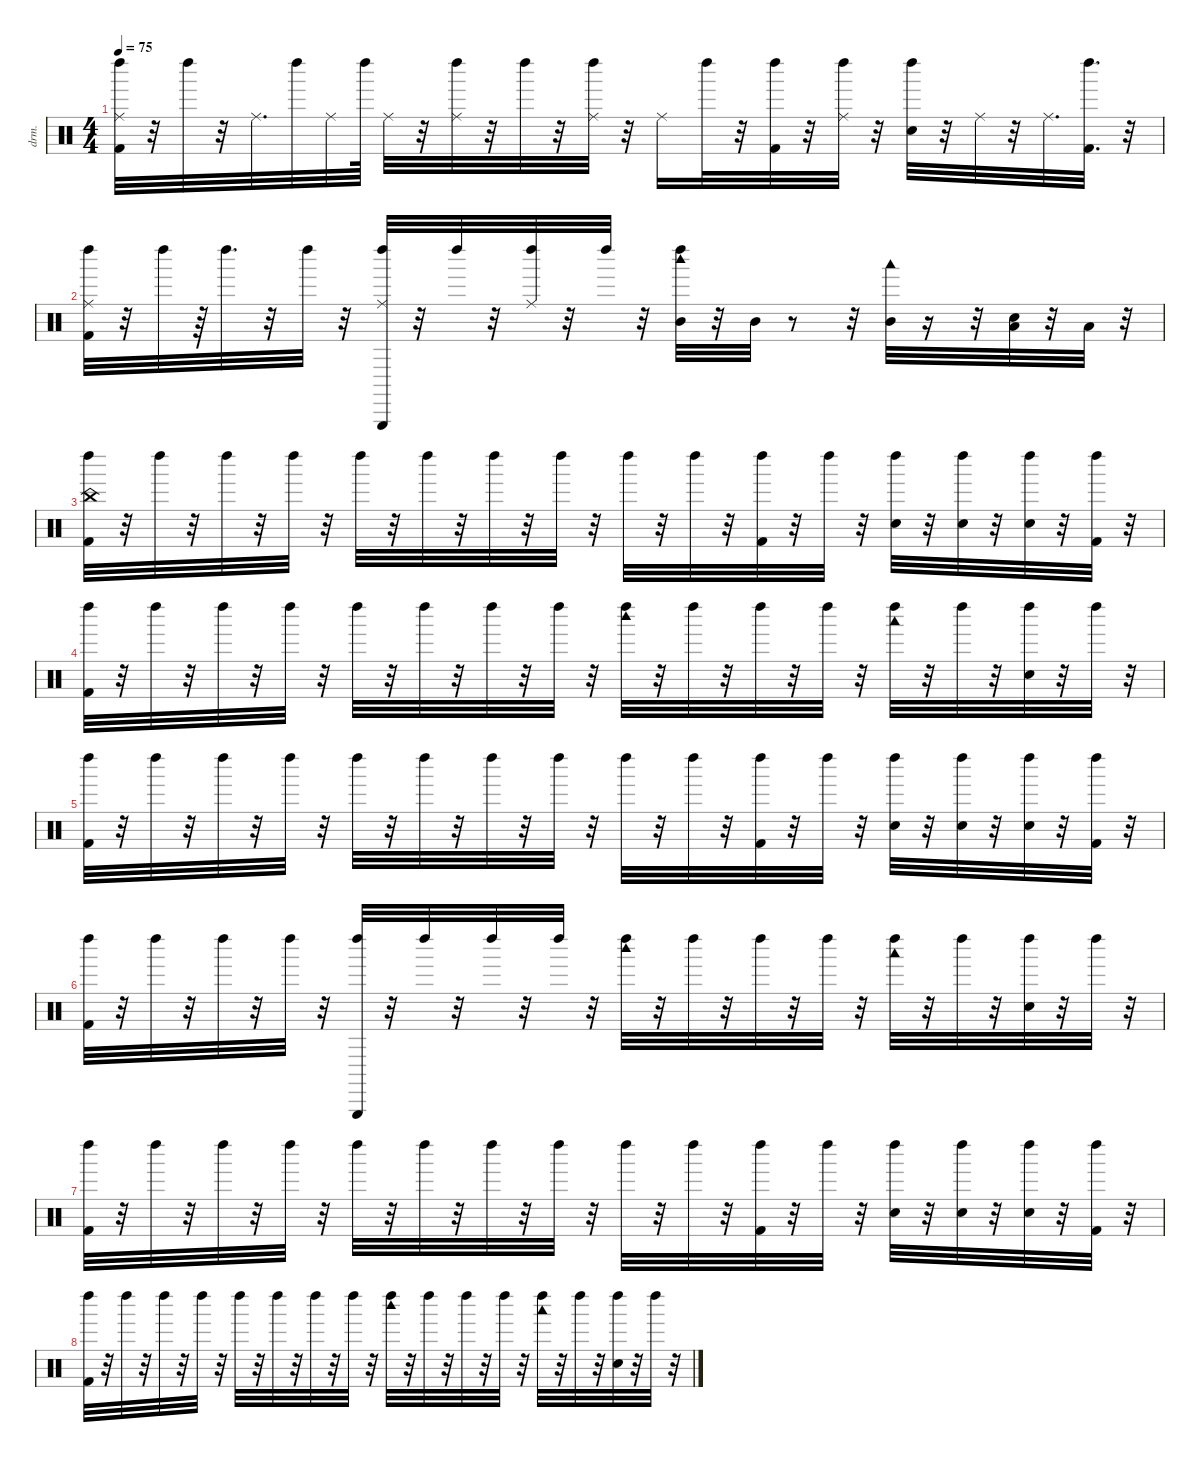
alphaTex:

\defaultSystemsLayout 4
\hideDynamics
\bracketExtendMode nobrackets
\otherSystemsTrackNameOrientation horizontal
\track ("Drums" "drm.") {instrument percussion}
\staff {score}
\articulation defaults
\ts (4 4)
\tempo 75
\clef neutral
\ks c
("Ride (middle)" "Kick (hit) 2" "Left Maraca (hit)").32{dy f} r.32 "Left Maraca (hit)".32 r.32 "Ride (middle)".32{d} "Left Maraca (hit)".32 "Ride (middle)".32 "Left Maraca (hit)".64 "Ride (middle)".32 r.32 ("Ride (middle)" "Left Maraca (hit)").32 r.32 "Left Maraca (hit)".32 r.32 ("Ride (middle)" "Left Maraca (hit)").32 r.32 "Ride (middle)".16 "Left Maraca (hit)".32 r.32 ("Kick (hit) 2" "Left Maraca (hit)").32 r.32 ("Ride (middle)" "Left Maraca (hit)").32 r.32 ("Snare (hit) 2" "Left Maraca (hit)").32 r.32 "Ride (middle)".32 r.32 "Ride (middle)".32{d} ("Kick (hit) 2" "Left Maraca (hit)").32{d} r.32 |
("Ride (middle)" "Kick (hit) 2" "Left Maraca (hit)").32 r.32 "Left Maraca (hit)".32 r.64 "Left Maraca (hit)".32{d} r.32 "Left Maraca (hit)".32 r.32 ("Ride (middle)" "Triangle (hit)" "Left Maraca (hit)").32 r.32 "Left Maraca (hit)".32 r.32 ("Ride (middle)" "Left Maraca (hit)").32 r.32 "Left Maraca (hit)".32 r.32 ("Mid Tom (hit)" "Woodblock high (hit)" "Left Maraca (hit)").32 r.32 "Mid Tom (hit)".32 r.8 r.32 ("Mid Tom (hit)" "Woodblock low (hit)").32 r.16 r.32 ("Low Tom (hit)" "Hand Clap (hit)").32 r.32 "Low Tom (hit)".32 r.32 |
("China (hit)" "Kick (hit) 2" "Left Maraca (hit)").32 r.32 "Left Maraca (hit)".32 r.32 "Left Maraca (hit)".32 r.32 "Left Maraca (hit)".32 r.32 "Left Maraca (hit)".32 r.32 "Left Maraca (hit)".32 r.32 "Left Maraca (hit)".32 r.32 "Left Maraca (hit)".32 r.32 "Left Maraca (hit)".32 r.32 "Left Maraca (hit)".32 r.32 ("Kick (hit) 2" "Left Maraca (hit)").32 r.32 "Left Maraca (hit)".32 r.32 ("Snare (hit) 2" "Left Maraca (hit)").32 r.32 ("Snare (hit) 2" "Left Maraca (hit)").32 r.32 ("Snare (hit) 2" "Left Maraca (hit)").32 r.32 ("Kick (hit) 2" "Left Maraca (hit)").32 r.32 |
("Kick (hit) 2" "Left Maraca (hit)").32 r.32 "Left Maraca (hit)".32 r.32 "Left Maraca (hit)".32 r.32 "Left Maraca (hit)".32 r.32 "Left Maraca (hit)".32 r.32 "Left Maraca (hit)".32 r.32 "Left Maraca (hit)".32 r.32 "Left Maraca (hit)".32 r.32 ("Woodblock high (hit)" "Left Maraca (hit)").32 r.32 "Left Maraca (hit)".32 r.32 "Left Maraca (hit)".32 r.32 "Left Maraca (hit)".32 r.32 ("Woodblock low (hit)" "Left Maraca (hit)").32 r.32 "Left Maraca (hit)".32 r.32 ("Hand Clap (hit)" "Left Maraca (hit)").32 r.32 "Left Maraca (hit)".32 r.32 |
("Kick (hit) 2" "Left Maraca (hit)").32 r.32 "Left Maraca (hit)".32 r.32 "Left Maraca (hit)".32 r.32 "Left Maraca (hit)".32 r.32 "Left Maraca (hit)".32 r.32 "Left Maraca (hit)".32 r.32 "Left Maraca (hit)".32 r.32 "Left Maraca (hit)".32 r.32 "Left Maraca (hit)".32 r.32 "Left Maraca (hit)".32 r.32 ("Kick (hit) 2" "Left Maraca (hit)").32 r.32 "Left Maraca (hit)".32 r.32 ("Snare (hit) 2" "Left Maraca (hit)").32 r.32 ("Snare (hit) 2" "Left Maraca (hit)").32 r.32 ("Snare (hit) 2" "Left Maraca (hit)").32 r.32 ("Kick (hit) 2" "Left Maraca (hit)").32 r.32 |
("Kick (hit) 2" "Left Maraca (hit)").32 r.32 "Left Maraca (hit)".32 r.32 "Left Maraca (hit)".32 r.32 "Left Maraca (hit)".32 r.32 ("Triangle (hit)" "Left Maraca (hit)").32 r.32 "Left Maraca (hit)".32 r.32 "Left Maraca (hit)".32 r.32 "Left Maraca (hit)".32 r.32 ("Woodblock high (hit)" "Left Maraca (hit)").32 r.32 "Left Maraca (hit)".32 r.32 "Left Maraca (hit)".32 r.32 "Left Maraca (hit)".32 r.32 ("Woodblock low (hit)" "Left Maraca (hit)").32 r.32 "Left Maraca (hit)".32 r.32 ("Hand Clap (hit)" "Left Maraca (hit)").32 r.32 "Left Maraca (hit)".32 r.32 |
("Kick (hit) 2" "Left Maraca (hit)").32 r.32 "Left Maraca (hit)".32 r.32 "Left Maraca (hit)".32 r.32 "Left Maraca (hit)".32 r.32 "Left Maraca (hit)".32 r.32 "Left Maraca (hit)".32 r.32 "Left Maraca (hit)".32 r.32 "Left Maraca (hit)".32 r.32 "Left Maraca (hit)".32 r.32 "Left Maraca (hit)".32 r.32 ("Kick (hit) 2" "Left Maraca (hit)").32 r.32 "Left Maraca (hit)".32 r.32 ("Snare (hit) 2" "Left Maraca (hit)").32 r.32 ("Snare (hit) 2" "Left Maraca (hit)").32 r.32 ("Snare (hit) 2" "Left Maraca (hit)").32 r.32 ("Kick (hit) 2" "Left Maraca (hit)").32 r.32 |
("Kick (hit) 2" "Left Maraca (hit)").32 r.32 "Left Maraca (hit)".32 r.32 "Left Maraca (hit)".32 r.32 "Left Maraca (hit)".32 r.32 "Left Maraca (hit)".32 r.32 "Left Maraca (hit)".32 r.32 "Left Maraca (hit)".32 r.32 "Left Maraca (hit)".32 r.32 ("Woodblock high (hit)" "Left Maraca (hit)").32 r.32 "Left Maraca (hit)".32 r.32 "Left Maraca (hit)".32 r.32 "Left Maraca (hit)".32 r.32 ("Woodblock low (hit)" "Left Maraca (hit)").32 r.32 "Left Maraca (hit)".32 r.32 ("Hand Clap (hit)" "Left Maraca (hit)").32 r.32 "Left Maraca (hit)".32 r.32
